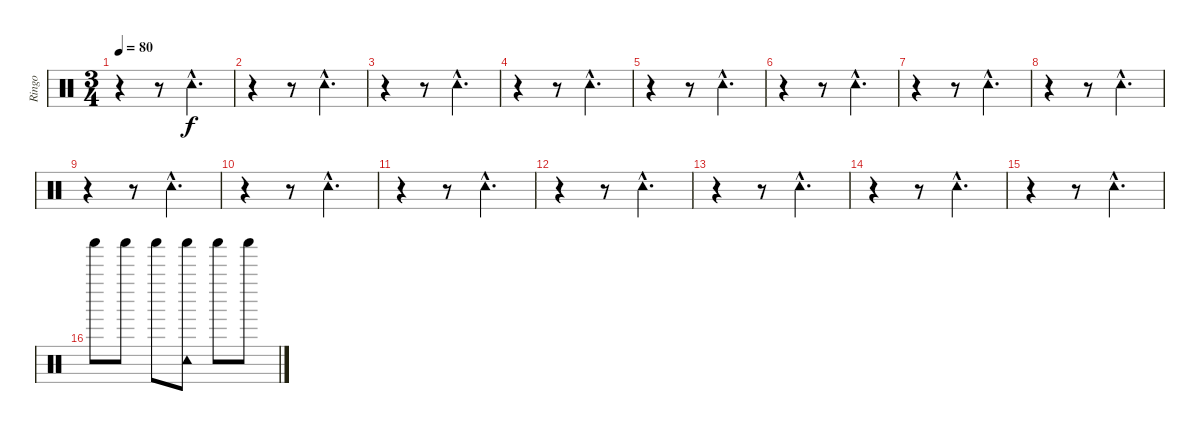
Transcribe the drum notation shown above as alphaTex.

\track ("Ringo" "Ringo") {instrument percussion}
\staff {score}
\articulation defaults
\ts (3 4)
\tempo 80
\clef neutral
\ks c
r.4{dy f} r.8 "Tambourine (hit)"{hac}.4{d} |
r.4 r.8 "Tambourine (hit)"{hac}.4{d} |
r.4 r.8 "Tambourine (hit)"{hac}.4{d} |
r.4 r.8 "Tambourine (hit)"{hac}.4{d} |
r.4 r.8 "Tambourine (hit)"{hac}.4{d} |
r.4 r.8 "Tambourine (hit)"{hac}.4{d} |
r.4 r.8 "Tambourine (hit)"{hac}.4{d} |
r.4 r.8 "Tambourine (hit)"{hac}.4{d} |
r.4 r.8 "Tambourine (hit)"{hac}.4{d} |
r.4 r.8 "Tambourine (hit)"{hac}.4{d} |
r.4 r.8 "Tambourine (hit)"{hac}.4{d} |
r.4 r.8 "Tambourine (hit)"{hac}.4{d} |
r.4 r.8 "Tambourine (hit)"{hac}.4{d} |
r.4 r.8 "Tambourine (hit)"{hac}.4{d} |
r.4 r.8 "Tambourine (hit)"{hac}.4{d} |
"Shaker (hit)".8 "Shaker (hit)".8 "Shaker (hit)".8 ("Tambourine (hit)" "Shaker (hit)").8 "Shaker (hit)".8 "Shaker (hit)".8
